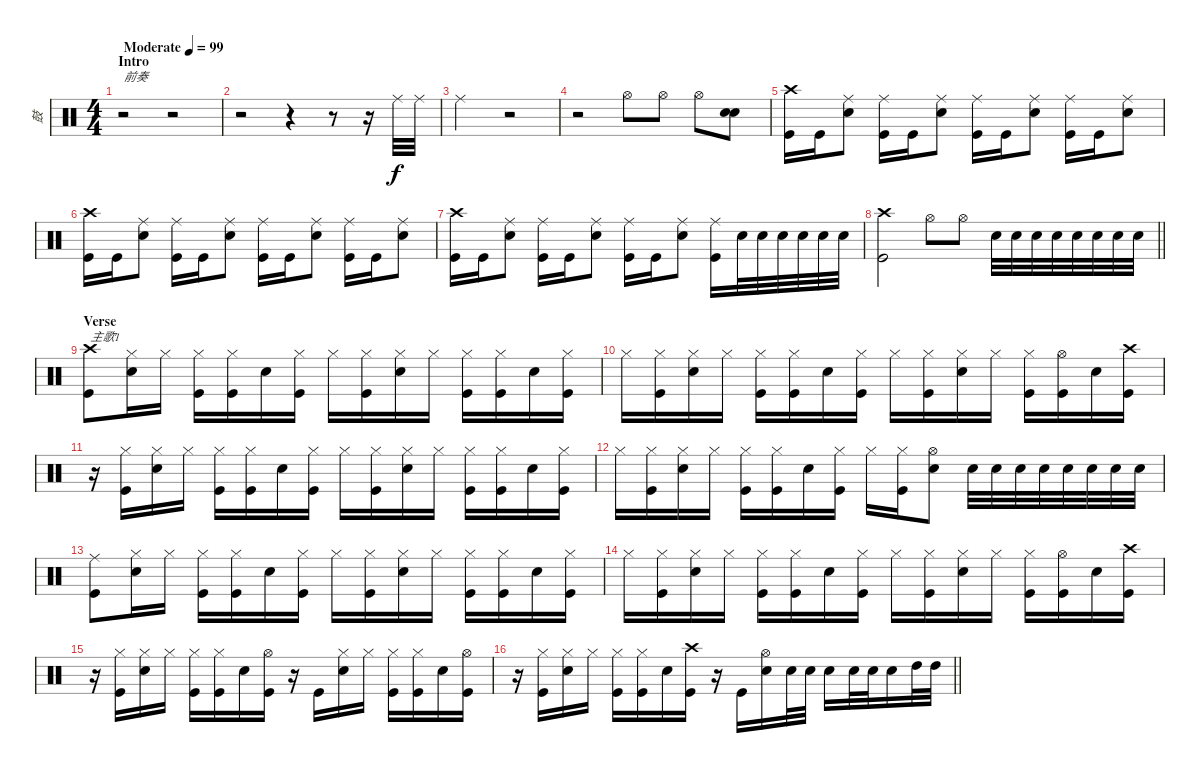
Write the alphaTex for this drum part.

\track ("鼓" "鼓") {instrument percussion}
\staff {score}
\articulation defaults
\ts (4 4)
\section ("" "Intro")
\tempo (99 "Moderate")
\clef neutral
\ks c
r.2{txt "前奏" dy f} r.2 |
r.2 r.4 r.8 r.16 "Ride (middle)".32 "Ride (middle)".32 |
"Ride (middle)".2 r.2 |
r.2 "Hi-Hat (open)".8 "Hi-Hat (open)".8 "Hi-Hat (open)".8 ("Snare (hit) 2" "Snare (hit) 2").8 |
("Crash high (hit)" "Kick (hit)").16 "Kick (hit)".16 ("Snare (hit) 2" "Ride (middle)").8 ("Kick (hit)" "Ride (middle)").16 "Kick (hit)".16 ("Snare (hit) 2" "Ride (middle)").8 ("Kick (hit)" "Ride (middle)").16 "Kick (hit)".16 ("Snare (hit) 2" "Ride (middle)").8 ("Kick (hit)" "Ride (middle)").16 "Kick (hit)".16 ("Snare (hit) 2" "Ride (middle)").8 |
("Crash high (hit)" "Kick (hit)").16 "Kick (hit)".16 ("Snare (hit) 2" "Ride (middle)").8 ("Kick (hit)" "Ride (middle)").16 "Kick (hit)".16 ("Snare (hit) 2" "Ride (middle)").8 ("Kick (hit)" "Ride (middle)").16 "Kick (hit)".16 ("Snare (hit) 2" "Ride (middle)").8 ("Kick (hit)" "Ride (middle)").16 "Kick (hit)".16 ("Snare (hit) 2" "Ride (middle)").8 |
("Crash high (hit)" "Kick (hit)").16 "Kick (hit)".16 ("Snare (hit) 2" "Ride (middle)").8 ("Kick (hit)" "Ride (middle)").16 "Kick (hit)".16 ("Snare (hit) 2" "Ride (middle)").8 ("Kick (hit)" "Ride (middle)").16 "Kick (hit)".16 ("Snare (hit) 2" "Ride (middle)").8 ("Kick (hit)" "Ride (middle)").16 "Snare (hit) 2".32 "Snare (hit) 2".32 "Snare (hit) 2".32 "Snare (hit) 2".32 "Snare (hit) 2".32 "Snare (hit) 2".32 |
\barLineRight lightlight
("Crash high (hit)" "Kick (hit)").2 "Hi-Hat (open)".8 "Hi-Hat (open)".8 "Snare (hit) 2".32 "Snare (hit) 2".32 "Snare (hit) 2".32 "Snare (hit) 2".32 "Snare (hit) 2".32 "Snare (hit) 2".32 "Snare (hit) 2".32 "Snare (hit) 2".32 |
\section ("" "Verse")
("Crash high (hit)" "Kick (hit)").8{txt "主歌1"} ("Snare (hit) 2" "Hi-Hat (closed)").16 "Hi-Hat (closed)".16 ("Kick (hit)" "Hi-Hat (closed)").16 ("Kick (hit)" "Hi-Hat (closed)").16 "Snare (hit) 2".16 ("Kick (hit)" "Hi-Hat (closed)").16 "Hi-Hat (closed)".16 ("Kick (hit)" "Hi-Hat (closed)").16 ("Snare (hit) 2" "Hi-Hat (closed)").16 "Hi-Hat (closed)".16 ("Kick (hit)" "Hi-Hat (closed)").16 ("Kick (hit)" "Hi-Hat (closed)").16 "Snare (hit) 2".16 ("Kick (hit)" "Hi-Hat (closed)").16 |
"Hi-Hat (closed)".16 ("Kick (hit)" "Hi-Hat (closed)").16 ("Snare (hit) 2" "Hi-Hat (closed)").16 "Hi-Hat (closed)".16 ("Kick (hit)" "Hi-Hat (closed)").16 ("Kick (hit)" "Hi-Hat (closed)").16 "Snare (hit) 2".16 ("Kick (hit)" "Hi-Hat (closed)").16 "Hi-Hat (closed)".16 ("Kick (hit)" "Hi-Hat (closed)").16 ("Snare (hit) 2" "Hi-Hat (closed)").16 "Hi-Hat (closed)".16 ("Kick (hit)" "Hi-Hat (closed)").16 ("Kick (hit)" "Hi-Hat (open)").16 "Snare (hit) 2".16 ("Kick (hit)" "Crash high (hit)").16 |
r.16 ("Kick (hit)" "Hi-Hat (closed)").16 ("Snare (hit) 2" "Hi-Hat (closed)").16 "Hi-Hat (closed)".16 ("Kick (hit)" "Hi-Hat (closed)").16 ("Kick (hit)" "Hi-Hat (closed)").16 "Snare (hit) 2".16 ("Kick (hit)" "Hi-Hat (closed)").16 "Hi-Hat (closed)".16 ("Kick (hit)" "Hi-Hat (closed)").16 ("Snare (hit) 2" "Hi-Hat (closed)").16 "Hi-Hat (closed)".16 ("Kick (hit)" "Hi-Hat (closed)").16 ("Kick (hit)" "Hi-Hat (closed)").16 "Snare (hit) 2".16 ("Kick (hit)" "Hi-Hat (closed)").16 |
"Hi-Hat (closed)".16 ("Kick (hit)" "Hi-Hat (closed)").16 ("Snare (hit) 2" "Hi-Hat (closed)").16 "Hi-Hat (closed)".16 ("Kick (hit)" "Hi-Hat (closed)").16 ("Kick (hit)" "Hi-Hat (closed)").16 "Snare (hit) 2".16 ("Kick (hit)" "Hi-Hat (closed)").16 "Hi-Hat (closed)".16 ("Kick (hit)" "Hi-Hat (closed)").16 ("Snare (hit) 2" "Hi-Hat (open)").8 "Snare (hit) 2".32 "Snare (hit) 2".32 "Snare (hit) 2".32 "Snare (hit) 2".32 "Snare (hit) 2".32 "Snare (hit) 2".32 "Snare (hit) 2".32 "Snare (hit) 2".32 |
("Ride (middle)" "Kick (hit)").8 ("Snare (hit) 2" "Hi-Hat (closed)").16 "Hi-Hat (closed)".16 ("Kick (hit)" "Hi-Hat (closed)").16 ("Kick (hit)" "Hi-Hat (closed)").16 "Snare (hit) 2".16 ("Kick (hit)" "Hi-Hat (closed)").16 "Hi-Hat (closed)".16 ("Kick (hit)" "Hi-Hat (closed)").16 ("Snare (hit) 2" "Hi-Hat (closed)").16 "Hi-Hat (closed)".16 ("Kick (hit)" "Hi-Hat (closed)").16 ("Kick (hit)" "Hi-Hat (closed)").16 "Snare (hit) 2".16 ("Kick (hit)" "Hi-Hat (closed)").16 |
"Hi-Hat (closed)".16 ("Kick (hit)" "Hi-Hat (closed)").16 ("Snare (hit) 2" "Hi-Hat (closed)").16 "Hi-Hat (closed)".16 ("Kick (hit)" "Hi-Hat (closed)").16 ("Kick (hit)" "Hi-Hat (closed)").16 "Snare (hit) 2".16 ("Kick (hit)" "Hi-Hat (closed)").16 "Hi-Hat (closed)".16 ("Kick (hit)" "Hi-Hat (closed)").16 ("Snare (hit) 2" "Hi-Hat (closed)").16 "Hi-Hat (closed)".16 ("Kick (hit)" "Hi-Hat (closed)").16 ("Kick (hit)" "Hi-Hat (open)").16 "Snare (hit) 2".16 ("Kick (hit)" "Crash high (hit)").16 |
r.16 ("Kick (hit)" "Hi-Hat (closed)").16 ("Snare (hit) 2" "Hi-Hat (closed)").16 "Hi-Hat (closed)".16 ("Kick (hit)" "Hi-Hat (closed)").16 ("Kick (hit)" "Hi-Hat (closed)").16 "Snare (hit) 2".16 ("Kick (hit)" "Hi-Hat (open)").16 r.16 "Kick (hit)".16 ("Snare (hit) 2" "Hi-Hat (closed)").16 "Hi-Hat (closed)".16 ("Kick (hit)" "Hi-Hat (closed)").16 ("Kick (hit)" "Hi-Hat (closed)").16 "Snare (hit) 2".16 ("Kick (hit)" "Hi-Hat (open)").16 |
\barLineRight lightlight
r.16 ("Kick (hit)" "Hi-Hat (closed)").16 ("Snare (hit) 2" "Hi-Hat (closed)").16 "Hi-Hat (closed)".16 ("Kick (hit)" "Hi-Hat (closed)").16 ("Kick (hit)" "Hi-Hat (closed)").16 "Snare (hit) 2".16 ("Kick (hit)" "Crash high (hit)").16 r.16 "Kick (hit)".16 ("Snare (hit) 2" "Hi-Hat (open)").16 "Snare (hit) 2".32 "Snare (hit) 2".32 "Snare (hit) 2".16 "Snare (hit) 2".32 "Snare (hit) 2".32 "Snare (hit) 2".16 "High Tom (hit)".32 "High Tom (hit)".32
